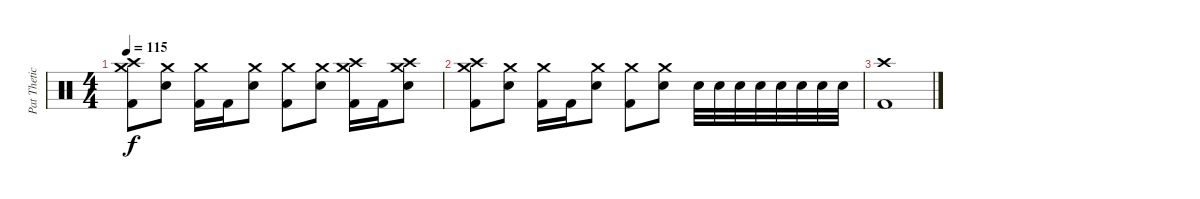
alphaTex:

\track ("Pat Thetic" "Pat Thetic") {instrument percussion}
\staff {score}
\articulation defaults
\ts (4 4)
\tempo 115
\clef neutral
\ks c
("Crash high (hit)" "Crash medium (hit)" "Kick (hit) 2").8{dy f} ("Crash medium (hit)" "Electric Snare (hit)").8 ("Crash medium (hit)" "Kick (hit) 2").16 "Kick (hit) 2".16 ("Crash medium (hit)" "Electric Snare (hit)").8 ("Crash medium (hit)" "Kick (hit) 2").8 ("Crash medium (hit)" "Electric Snare (hit)").8 ("Crash high (hit)" "Crash medium (hit)" "Kick (hit) 2").16 "Kick (hit) 2".16 ("Crash high (hit)" "Crash medium (hit)" "Electric Snare (hit)").8 |
("Crash high (hit)" "Crash medium (hit)" "Kick (hit) 2").8 ("Crash medium (hit)" "Electric Snare (hit)").8 ("Crash medium (hit)" "Kick (hit) 2").16 "Kick (hit) 2".16 ("Crash medium (hit)" "Electric Snare (hit)").8 ("Crash medium (hit)" "Kick (hit) 2").8 ("Crash medium (hit)" "Electric Snare (hit)").8 "Electric Snare (hit)".32 "Electric Snare (hit)".32 "Electric Snare (hit)".32 "Electric Snare (hit)".32 "Electric Snare (hit)".32 "Electric Snare (hit)".32 "Electric Snare (hit)".32 "Electric Snare (hit)".32 |
("Crash high (hit)" "Kick (hit) 2").1
